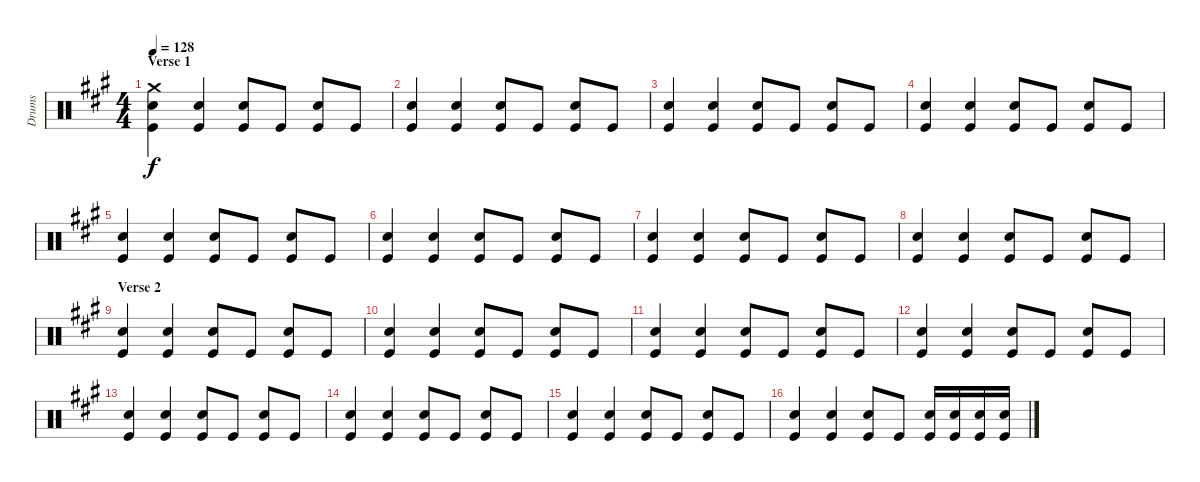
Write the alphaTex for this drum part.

\defaultSystemsLayout 4
\bracketExtendMode groupsimilarinstruments
\otherSystemsTrackNameOrientation horizontal
\track ("Drumkit" "Drums") {instrument percussion}
\staff {score}
\articulation defaults
\ts (4 4)
\section ("" "Verse 1")
\tempo 128
\clef neutral
\ks a
("Crash medium (hit)" "Snare (hit) 2" "Kick (hit)").4{dy f} ("Snare (hit) 2" "Kick (hit)").4 ("Snare (hit) 2" "Kick (hit)").8 "Kick (hit)".8 ("Snare (hit) 2" "Kick (hit)").8 "Kick (hit)".8 |
("Snare (hit) 2" "Kick (hit)").4 ("Snare (hit) 2" "Kick (hit)").4 ("Snare (hit) 2" "Kick (hit)").8 "Kick (hit)".8 ("Snare (hit) 2" "Kick (hit)").8 "Kick (hit)".8 |
("Snare (hit) 2" "Kick (hit)").4 ("Snare (hit) 2" "Kick (hit)").4 ("Snare (hit) 2" "Kick (hit)").8 "Kick (hit)".8 ("Snare (hit) 2" "Kick (hit)").8 "Kick (hit)".8 |
("Snare (hit) 2" "Kick (hit)").4 ("Snare (hit) 2" "Kick (hit)").4 ("Snare (hit) 2" "Kick (hit)").8 "Kick (hit)".8 ("Snare (hit) 2" "Kick (hit)").8 "Kick (hit)".8 |
("Snare (hit) 2" "Kick (hit)").4 ("Snare (hit) 2" "Kick (hit)").4 ("Snare (hit) 2" "Kick (hit)").8 "Kick (hit)".8 ("Snare (hit) 2" "Kick (hit)").8 "Kick (hit)".8 |
("Snare (hit) 2" "Kick (hit)").4 ("Snare (hit) 2" "Kick (hit)").4 ("Snare (hit) 2" "Kick (hit)").8 "Kick (hit)".8 ("Snare (hit) 2" "Kick (hit)").8 "Kick (hit)".8 |
("Snare (hit) 2" "Kick (hit)").4 ("Snare (hit) 2" "Kick (hit)").4 ("Snare (hit) 2" "Kick (hit)").8 "Kick (hit)".8 ("Snare (hit) 2" "Kick (hit)").8 "Kick (hit)".8 |
("Snare (hit) 2" "Kick (hit)").4 ("Snare (hit) 2" "Kick (hit)").4 ("Snare (hit) 2" "Kick (hit)").8 "Kick (hit)".8 ("Snare (hit) 2" "Kick (hit)").8 "Kick (hit)".8 |
\section ("" "Verse 2")
("Snare (hit) 2" "Kick (hit)").4 ("Snare (hit) 2" "Kick (hit)").4 ("Snare (hit) 2" "Kick (hit)").8 "Kick (hit)".8 ("Snare (hit) 2" "Kick (hit)").8 "Kick (hit)".8 |
("Snare (hit) 2" "Kick (hit)").4 ("Snare (hit) 2" "Kick (hit)").4 ("Snare (hit) 2" "Kick (hit)").8 "Kick (hit)".8 ("Snare (hit) 2" "Kick (hit)").8 "Kick (hit)".8 |
("Snare (hit) 2" "Kick (hit)").4 ("Snare (hit) 2" "Kick (hit)").4 ("Snare (hit) 2" "Kick (hit)").8 "Kick (hit)".8 ("Snare (hit) 2" "Kick (hit)").8 "Kick (hit)".8 |
("Snare (hit) 2" "Kick (hit)").4 ("Snare (hit) 2" "Kick (hit)").4 ("Snare (hit) 2" "Kick (hit)").8 "Kick (hit)".8 ("Snare (hit) 2" "Kick (hit)").8 "Kick (hit)".8 |
("Snare (hit) 2" "Kick (hit)").4 ("Snare (hit) 2" "Kick (hit)").4 ("Snare (hit) 2" "Kick (hit)").8 "Kick (hit)".8 ("Snare (hit) 2" "Kick (hit)").8 "Kick (hit)".8 |
("Snare (hit) 2" "Kick (hit)").4 ("Snare (hit) 2" "Kick (hit)").4 ("Snare (hit) 2" "Kick (hit)").8 "Kick (hit)".8 ("Snare (hit) 2" "Kick (hit)").8 "Kick (hit)".8 |
("Snare (hit) 2" "Kick (hit)").4 ("Snare (hit) 2" "Kick (hit)").4 ("Snare (hit) 2" "Kick (hit)").8 "Kick (hit)".8 ("Snare (hit) 2" "Kick (hit)").8 "Kick (hit)".8 |
("Snare (hit) 2" "Kick (hit)").4 ("Snare (hit) 2" "Kick (hit)").4 ("Snare (hit) 2" "Kick (hit)").8 "Kick (hit)".8 ("Snare (hit) 2" "Kick (hit)").16 ("Snare (hit) 2" "Kick (hit)").16 ("Snare (hit) 2" "Kick (hit)").16 ("Snare (hit) 2" "Kick (hit)").16
